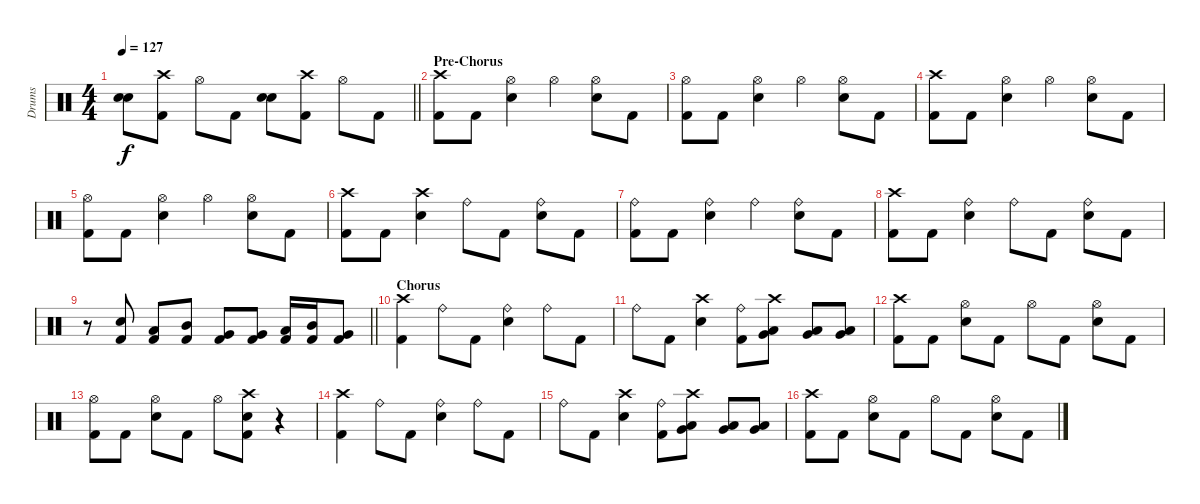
\track ("Drums" "Drums") {instrument percussion}
\staff {score}
\articulation defaults
\ts (4 4)
\tempo 127
\clef neutral
\barLineRight lightlight
\ks c
("Electric Snare (hit)" "Electric Snare (hit)").8{dy f} ("Crash high (hit)" "Kick (hit) 2").8 "Hi-Hat (open)".8 "Kick (hit) 2".8 ("Electric Snare (hit)" "Electric Snare (hit)").8 ("Crash high (hit)" "Kick (hit) 2").8 "Hi-Hat (open)".8 "Kick (hit) 2".8 |
\section ("" "Pre-Chorus")
("Crash high (hit)" "Kick (hit) 2").8 "Kick (hit) 2".8 ("Hi-Hat (open)" "Electric Snare (hit)").4 "Hi-Hat (open)".4 ("Hi-Hat (open)" "Electric Snare (hit)").8 "Kick (hit) 2".8 |
("Hi-Hat (open)" "Kick (hit) 2").8 "Kick (hit) 2".8 ("Hi-Hat (open)" "Electric Snare (hit)").4 "Hi-Hat (open)".4 ("Hi-Hat (open)" "Electric Snare (hit)").8 "Kick (hit) 2".8 |
("Crash high (hit)" "Kick (hit) 2").8 "Kick (hit) 2".8 ("Hi-Hat (open)" "Electric Snare (hit)").4 "Hi-Hat (open)".4 ("Hi-Hat (open)" "Electric Snare (hit)").8 "Kick (hit) 2".8 |
("Hi-Hat (open)" "Kick (hit) 2").8 "Kick (hit) 2".8 ("Hi-Hat (open)" "Electric Snare (hit)").4 "Hi-Hat (open)".4 ("Hi-Hat (open)" "Electric Snare (hit)").8 "Kick (hit) 2".8 |
("Crash high (hit)" "Kick (hit) 2").8 "Kick (hit) 2".8 ("Crash high (hit)" "Electric Snare (hit)").4 "Ride (bell)".8 "Kick (hit) 2".8 ("Ride (bell)" "Electric Snare (hit)").8 "Kick (hit) 2".8 |
("Ride (bell)" "Kick (hit) 2").8 "Kick (hit) 2".8 ("Ride (bell)" "Electric Snare (hit)").4 "Ride (bell)".4 ("Ride (bell)" "Electric Snare (hit)").8 "Kick (hit) 2".8 |
("Crash high (hit)" "Kick (hit) 2").8 "Kick (hit) 2".8 ("Ride (bell)" "Electric Snare (hit)").4 "Ride (bell)".8 "Kick (hit) 2".8 ("Ride (bell)" "Electric Snare (hit)").8 "Kick (hit) 2".8 |
\barLineRight lightlight
r.8 ("Kick (hit) 2" "Electric Snare (hit)").8 ("Kick (hit) 2" "Low Tom (hit)").8 ("Kick (hit) 2" "Mid Tom (hit)").8 ("Kick (hit) 2" "Very Low Tom (hit)").8 ("Kick (hit) 2" "Very Low Tom (hit)").8 ("Kick (hit) 2" "Low Tom (hit)").16 ("Kick (hit) 2" "Mid Tom (hit)").16 ("Kick (hit) 2" "Very Low Tom (hit)").8 |
\section ("" "Chorus")
("Crash high (hit)" "Kick (hit) 2").4 "Ride (bell)".8 "Kick (hit) 2".8 ("Ride (bell)" "Electric Snare (hit)").4 "Ride (bell)".8 "Kick (hit) 2".8 |
"Ride (bell)".8 "Kick (hit) 2".8 ("Crash high (hit)" "Electric Snare (hit)").4 ("Ride (bell)" "Kick (hit) 2").8 ("Crash high (hit)" "Low Tom (hit)" "Very Low Tom (hit)").8 ("Low Tom (hit)" "Very Low Tom (hit)").8 ("Low Tom (hit)" "Very Low Tom (hit)").8 |
("Crash high (hit)" "Kick (hit) 2").8 "Kick (hit) 2".8 ("Hi-Hat (open)" "Electric Snare (hit)").8 "Kick (hit) 2".8 "Hi-Hat (open)".8 "Kick (hit) 2".8 ("Hi-Hat (open)" "Electric Snare (hit)").8 "Kick (hit) 2".8 |
("Hi-Hat (open)" "Kick (hit) 2").8 "Kick (hit) 2".8 ("Hi-Hat (open)" "Electric Snare (hit)").8 "Kick (hit) 2".8 "Hi-Hat (open)".8 ("Crash high (hit)" "Electric Snare (hit)" "Kick (hit) 2").8 r.4 |
("Crash high (hit)" "Kick (hit) 2").4 "Ride (bell)".8 "Kick (hit) 2".8 ("Ride (bell)" "Electric Snare (hit)").4 "Ride (bell)".8 "Kick (hit) 2".8 |
"Ride (bell)".8 "Kick (hit) 2".8 ("Crash high (hit)" "Electric Snare (hit)").4 ("Ride (bell)" "Kick (hit) 2").8 ("Crash high (hit)" "Low Tom (hit)" "Very Low Tom (hit)").8 ("Low Tom (hit)" "Very Low Tom (hit)").8 ("Low Tom (hit)" "Very Low Tom (hit)").8 |
("Crash high (hit)" "Kick (hit) 2").8 "Kick (hit) 2".8 ("Hi-Hat (open)" "Electric Snare (hit)").8 "Kick (hit) 2".8 "Hi-Hat (open)".8 "Kick (hit) 2".8 ("Hi-Hat (open)" "Electric Snare (hit)").8 "Kick (hit) 2".8
